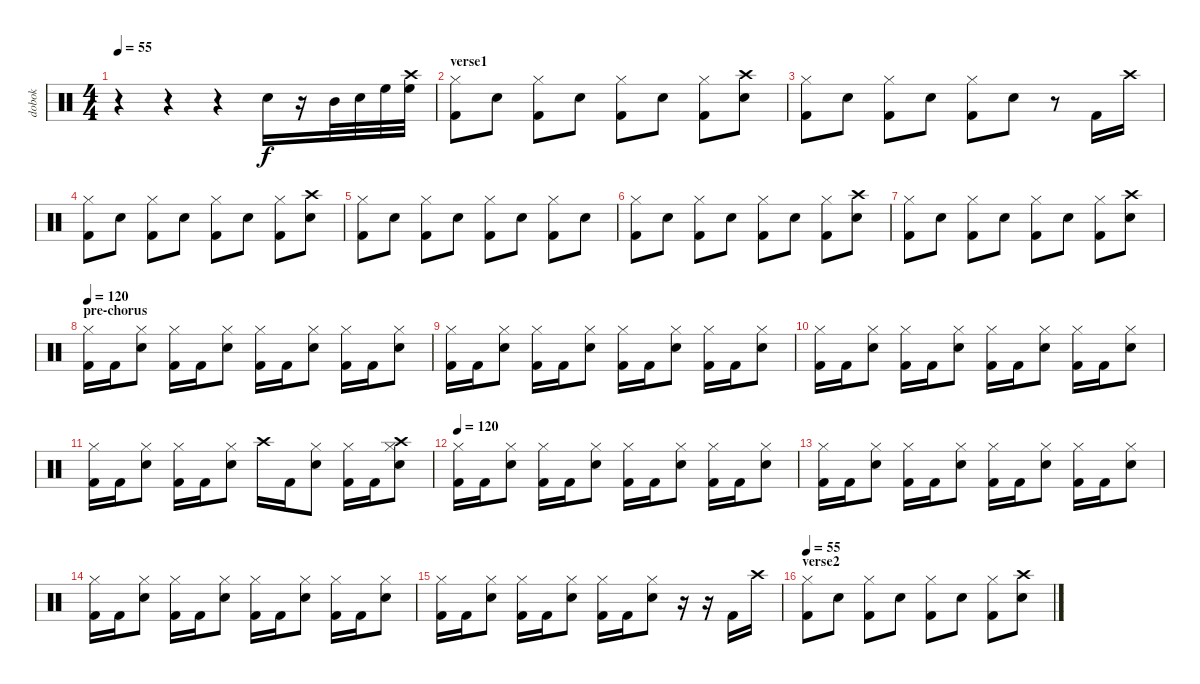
\track ("dobok" "dobok") {instrument percussion}
\staff {score}
\articulation defaults
\ts (4 4)
\tempo 55
\clef neutral
\ks c
r.4{dy f} r.4 r.4 "Snare (hit) 2".16 r.16 "Mid Tom (hit)".32 "Snare (hit) 2".32 "High Floor Tom (hit)".32 ("High Floor Tom (hit)" "Crash high (hit)").32 |
\section ("" "verse1")
("Hi-Hat (closed)" "Kick (hit) 2").8 "Snare (hit) 2".8 ("Hi-Hat (closed)" "Kick (hit) 2").8 "Snare (hit) 2".8 ("Hi-Hat (closed)" "Kick (hit) 2").8 "Snare (hit) 2".8 ("Hi-Hat (closed)" "Kick (hit) 2").8 ("Snare (hit) 2" "Crash high (hit)").8 |
("Hi-Hat (closed)" "Kick (hit) 2").8 "Snare (hit) 2".8 ("Hi-Hat (closed)" "Kick (hit) 2").8 "Snare (hit) 2".8 ("Hi-Hat (closed)" "Kick (hit) 2").8 "Snare (hit) 2".8 r.8 "Kick (hit) 2".16 "Crash high (hit)".16 |
("Hi-Hat (closed)" "Kick (hit) 2").8 "Snare (hit) 2".8 ("Hi-Hat (closed)" "Kick (hit) 2").8 "Snare (hit) 2".8 ("Hi-Hat (closed)" "Kick (hit) 2").8 "Snare (hit) 2".8 ("Hi-Hat (closed)" "Kick (hit) 2").8 ("Snare (hit) 2" "Crash high (hit)").8 |
("Hi-Hat (closed)" "Kick (hit) 2").8 "Snare (hit) 2".8 ("Hi-Hat (closed)" "Kick (hit) 2").8 "Snare (hit) 2".8 ("Hi-Hat (closed)" "Kick (hit) 2").8 "Snare (hit) 2".8 ("Hi-Hat (closed)" "Kick (hit) 2").8 "Snare (hit) 2".8 |
("Hi-Hat (closed)" "Kick (hit) 2").8 "Snare (hit) 2".8 ("Hi-Hat (closed)" "Kick (hit) 2").8 "Snare (hit) 2".8 ("Hi-Hat (closed)" "Kick (hit) 2").8 "Snare (hit) 2".8 ("Hi-Hat (closed)" "Kick (hit) 2").8 ("Snare (hit) 2" "Crash high (hit)").8 |
("Hi-Hat (closed)" "Kick (hit) 2").8 "Snare (hit) 2".8 ("Hi-Hat (closed)" "Kick (hit) 2").8 "Snare (hit) 2".8 ("Hi-Hat (closed)" "Kick (hit) 2").8 "Snare (hit) 2".8 ("Hi-Hat (closed)" "Kick (hit) 2").8 ("Snare (hit) 2" "Crash high (hit)").8 |
\section ("" "pre-chorus")
\tempo 120
("Hi-Hat (closed)" "Kick (hit) 2").16 "Kick (hit) 2".16 ("Hi-Hat (closed)" "Snare (hit) 2").8 ("Hi-Hat (closed)" "Kick (hit) 2").16 "Kick (hit) 2".16 ("Hi-Hat (closed)" "Snare (hit) 2").8 ("Hi-Hat (closed)" "Kick (hit) 2").16 "Kick (hit) 2".16 ("Hi-Hat (closed)" "Snare (hit) 2").8 ("Hi-Hat (closed)" "Kick (hit) 2").16 "Kick (hit) 2".16 ("Hi-Hat (closed)" "Snare (hit) 2").8 |
("Hi-Hat (closed)" "Kick (hit) 2").16 "Kick (hit) 2".16 ("Hi-Hat (closed)" "Snare (hit) 2").8 ("Hi-Hat (closed)" "Kick (hit) 2").16 "Kick (hit) 2".16 ("Hi-Hat (closed)" "Snare (hit) 2").8 ("Hi-Hat (closed)" "Kick (hit) 2").16 "Kick (hit) 2".16 ("Hi-Hat (closed)" "Snare (hit) 2").8 ("Hi-Hat (closed)" "Kick (hit) 2").16 "Kick (hit) 2".16 ("Hi-Hat (closed)" "Snare (hit) 2").8 |
("Hi-Hat (closed)" "Kick (hit) 2").16 "Kick (hit) 2".16 ("Hi-Hat (closed)" "Snare (hit) 2").8 ("Hi-Hat (closed)" "Kick (hit) 2").16 "Kick (hit) 2".16 ("Hi-Hat (closed)" "Snare (hit) 2").8 ("Hi-Hat (closed)" "Kick (hit) 2").16 "Kick (hit) 2".16 ("Hi-Hat (closed)" "Snare (hit) 2").8 ("Hi-Hat (closed)" "Kick (hit) 2").16 "Kick (hit) 2".16 ("Hi-Hat (closed)" "Snare (hit) 2").8 |
("Hi-Hat (closed)" "Kick (hit) 2").16 "Kick (hit) 2".16 ("Hi-Hat (closed)" "Snare (hit) 2").8 ("Hi-Hat (closed)" "Kick (hit) 2").16 "Kick (hit) 2".16 ("Hi-Hat (closed)" "Snare (hit) 2").8 "Crash high (hit)".16 "Kick (hit) 2".16 ("Hi-Hat (closed)" "Snare (hit) 2").8 ("Hi-Hat (closed)" "Kick (hit) 2").16 "Kick (hit) 2".16 ("Hi-Hat (closed)" "Snare (hit) 2" "Crash high (hit)").8 |
\tempo 120
("Hi-Hat (closed)" "Kick (hit) 2").16 "Kick (hit) 2".16 ("Hi-Hat (closed)" "Snare (hit) 2").8 ("Hi-Hat (closed)" "Kick (hit) 2").16 "Kick (hit) 2".16 ("Hi-Hat (closed)" "Snare (hit) 2").8 ("Hi-Hat (closed)" "Kick (hit) 2").16 "Kick (hit) 2".16 ("Hi-Hat (closed)" "Snare (hit) 2").8 ("Hi-Hat (closed)" "Kick (hit) 2").16 "Kick (hit) 2".16 ("Hi-Hat (closed)" "Snare (hit) 2").8 |
("Hi-Hat (closed)" "Kick (hit) 2").16 "Kick (hit) 2".16 ("Hi-Hat (closed)" "Snare (hit) 2").8 ("Hi-Hat (closed)" "Kick (hit) 2").16 "Kick (hit) 2".16 ("Hi-Hat (closed)" "Snare (hit) 2").8 ("Hi-Hat (closed)" "Kick (hit) 2").16 "Kick (hit) 2".16 ("Hi-Hat (closed)" "Snare (hit) 2").8 ("Hi-Hat (closed)" "Kick (hit) 2").16 "Kick (hit) 2".16 ("Hi-Hat (closed)" "Snare (hit) 2").8 |
("Hi-Hat (closed)" "Kick (hit) 2").16 "Kick (hit) 2".16 ("Hi-Hat (closed)" "Snare (hit) 2").8 ("Hi-Hat (closed)" "Kick (hit) 2").16 "Kick (hit) 2".16 ("Hi-Hat (closed)" "Snare (hit) 2").8 ("Hi-Hat (closed)" "Kick (hit) 2").16 "Kick (hit) 2".16 ("Hi-Hat (closed)" "Snare (hit) 2").8 ("Hi-Hat (closed)" "Kick (hit) 2").16 "Kick (hit) 2".16 ("Hi-Hat (closed)" "Snare (hit) 2").8 |
("Hi-Hat (closed)" "Kick (hit) 2").16 "Kick (hit) 2".16 ("Hi-Hat (closed)" "Snare (hit) 2").8 ("Hi-Hat (closed)" "Kick (hit) 2").16 "Kick (hit) 2".16 ("Hi-Hat (closed)" "Snare (hit) 2").8 ("Hi-Hat (closed)" "Kick (hit) 2").16 "Kick (hit) 2".16 ("Hi-Hat (closed)" "Snare (hit) 2").8 r.16 r.16 "Kick (hit) 2".16 "Crash high (hit)".16 |
\section ("" "verse2")
\tempo 55
("Hi-Hat (closed)" "Kick (hit) 2").8 "Snare (hit) 2".8 ("Hi-Hat (closed)" "Kick (hit) 2").8 "Snare (hit) 2".8 ("Hi-Hat (closed)" "Kick (hit) 2").8 "Snare (hit) 2".8 ("Hi-Hat (closed)" "Kick (hit) 2").8 ("Snare (hit) 2" "Crash high (hit)").8
